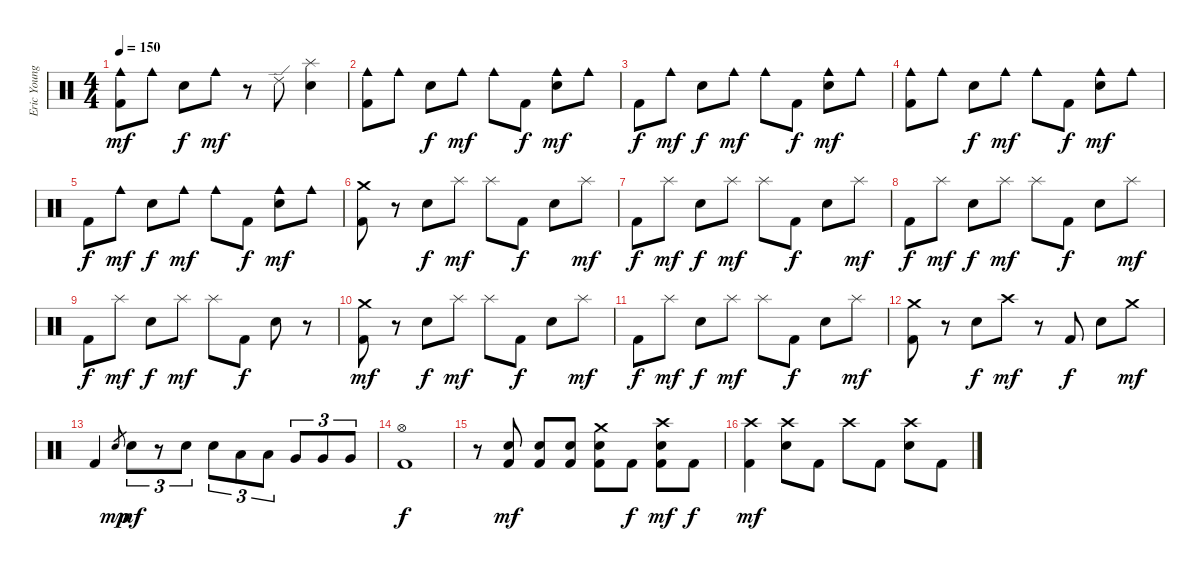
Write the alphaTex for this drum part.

\track ("Eric Young" "Eric Young") {instrument percussion}
\staff {score}
\articulation defaults
\ts (4 4)
\tempo 150
\clef neutral
\ks c
("Cowbell medium (hit)" "Kick (hit) 2").8{dy mf} "Cowbell medium (hit)".8 "Electric Snare (hit)".8{dy f} "Cowbell medium (hit)".8{dy mf} r.8 "Ride (edge) 2".8 ("Splash (hit)" "Electric Snare (hit)").4 |
("Cowbell medium (hit)" "Kick (hit) 2").8 "Cowbell medium (hit)".8 "Electric Snare (hit)".8{dy f} "Cowbell medium (hit)".8{dy mf} "Cowbell medium (hit)".8 "Kick (hit) 2".8{dy f} ("Cowbell medium (hit)" "Electric Snare (hit)").8{dy mf} "Cowbell medium (hit)".8 |
"Kick (hit) 2".8{dy f} "Cowbell medium (hit)".8{dy mf} "Electric Snare (hit)".8{dy f} "Cowbell medium (hit)".8{dy mf} "Cowbell medium (hit)".8 "Kick (hit) 2".8{dy f} ("Cowbell medium (hit)" "Electric Snare (hit)").8{dy mf} "Cowbell medium (hit)".8 |
("Cowbell medium (hit)" "Kick (hit) 2").8 "Cowbell medium (hit)".8 "Electric Snare (hit)".8{dy f} "Cowbell medium (hit)".8{dy mf} "Cowbell medium (hit)".8 "Kick (hit) 2".8{dy f} ("Cowbell medium (hit)" "Electric Snare (hit)").8{dy mf} "Cowbell medium (hit)".8 |
"Kick (hit) 2".8{dy f} "Cowbell medium (hit)".8{dy mf} "Electric Snare (hit)".8{dy f} "Cowbell medium (hit)".8{dy mf} "Cowbell medium (hit)".8 "Kick (hit) 2".8{dy f} ("Cowbell medium (hit)" "Electric Snare (hit)").8{dy mf} "Cowbell medium (hit)".8 |
("Crash medium (hit)" "Kick (hit) 2").8 r.8 "Electric Snare (hit)".8{dy f} "Splash (hit)".8{dy mf} "Splash (hit)".8 "Kick (hit) 2".8{dy f} "Electric Snare (hit)".8 "Splash (hit)".8{dy mf} |
"Kick (hit) 2".8{dy f} "Splash (hit)".8{dy mf} "Electric Snare (hit)".8{dy f} "Splash (hit)".8{dy mf} "Splash (hit)".8 "Kick (hit) 2".8{dy f} "Electric Snare (hit)".8 "Splash (hit)".8{dy mf} |
"Kick (hit) 2".8{dy f} "Splash (hit)".8{dy mf} "Electric Snare (hit)".8{dy f} "Splash (hit)".8{dy mf} "Splash (hit)".8 "Kick (hit) 2".8{dy f} "Electric Snare (hit)".8 "Splash (hit)".8{dy mf} |
"Kick (hit) 2".8{dy f} "Splash (hit)".8{dy mf} "Electric Snare (hit)".8{dy f} "Splash (hit)".8{dy mf} "Splash (hit)".8 "Kick (hit) 2".8{dy f} "Electric Snare (hit)".8 r.8 |
("Crash medium (hit)" "Kick (hit) 2").8{dy mf} r.8 "Electric Snare (hit)".8{dy f} "Splash (hit)".8{dy mf} "Splash (hit)".8 "Kick (hit) 2".8{dy f} "Electric Snare (hit)".8 "Splash (hit)".8{dy mf} |
"Kick (hit) 2".8{dy f} "Splash (hit)".8{dy mf} "Electric Snare (hit)".8{dy f} "Splash (hit)".8{dy mf} "Splash (hit)".8 "Kick (hit) 2".8{dy f} "Electric Snare (hit)".8 "Splash (hit)".8{dy mf} |
("Crash medium (hit)" "Kick (hit) 2").8 r.8 "Electric Snare (hit)".8{dy f} "Crash high (hit)".8{dy mf} r.8 "Kick (hit) 2".8{dy f} "Electric Snare (hit)".8 "Crash medium (hit)".8{dy mf} |
"Kick (hit) 2".4 "Electric Snare (hit)".8{gr dy mp} "Electric Snare (hit)".8{tu (3 2) dy mf} r.8{tu (3 2)} "Electric Snare (hit)".8{tu (3 2)} "Electric Snare (hit)".8{tu (3 2)} "Low Tom (hit)".8{tu (3 2)} "Low Tom (hit)".8{tu (3 2)} "Very Low Tom (hit)".8{tu (3 2)} "Very Low Tom (hit)".8{tu (3 2)} "Very Low Tom (hit)".8{tu (3 2)} |
("Hi-Hat (open)" "Kick (hit) 2").1{dy f} |
r.8 ("Electric Snare (hit)" "Kick (hit) 2").8{dy mf} ("Electric Snare (hit)" "Kick (hit) 2").8 ("Electric Snare (hit)" "Kick (hit) 2").8 ("Crash medium (hit)" "Electric Snare (hit)" "Kick (hit) 2").8 "Kick (hit) 2".8{dy f} ("Crash high (hit)" "Electric Snare (hit)" "Kick (hit) 2").8{dy mf} "Kick (hit) 2".8{dy f} |
("Crash high (hit)" "Kick (hit) 2").4{dy mf} ("Crash high (hit)" "Electric Snare (hit)").8 "Kick (hit) 2".8 "Crash high (hit)".8 "Kick (hit) 2".8 ("Crash high (hit)" "Electric Snare (hit)").8 "Kick (hit) 2".8
